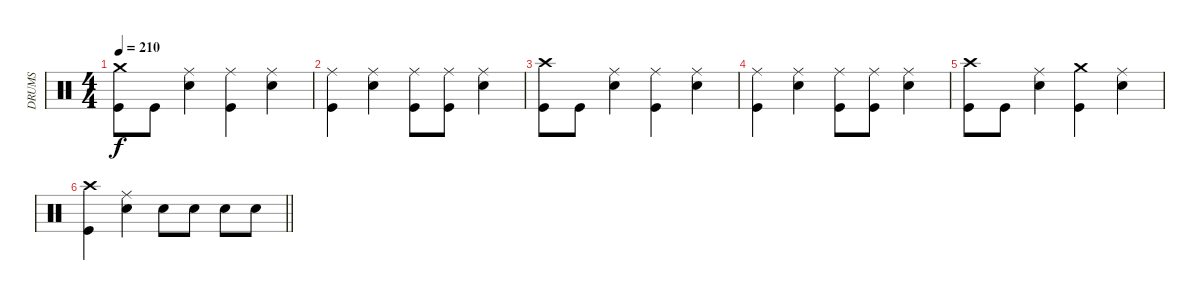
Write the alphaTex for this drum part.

\track ("DRUMS" "DRUMS") {instrument percussion}
\staff {score}
\articulation defaults
\ts (4 4)
\tempo 210
\clef neutral
\ks c
("Crash medium (hit)" "Kick (hit)").8{dy f} "Kick (hit)".8 ("Ride (middle)" "Snare (hit) 2").4 ("Ride (middle)" "Kick (hit)").4 ("Ride (middle)" "Snare (hit) 2").4 |
("Ride (middle)" "Kick (hit)").4 ("Ride (middle)" "Snare (hit) 2").4 ("Ride (middle)" "Kick (hit)").8 ("Ride (middle)" "Kick (hit)").8 ("Ride (middle)" "Snare (hit) 2").4 |
("Crash high (hit)" "Kick (hit)").8 "Kick (hit)".8 ("Ride (middle)" "Snare (hit) 2").4 ("Ride (middle)" "Kick (hit)").4 ("Ride (middle)" "Snare (hit) 2").4 |
("Ride (middle)" "Kick (hit)").4 ("Ride (middle)" "Snare (hit) 2").4 ("Ride (middle)" "Kick (hit)").8 ("Ride (middle)" "Kick (hit)").8 ("Ride (middle)" "Snare (hit) 2").4 |
("Crash high (hit)" "Kick (hit)").8 "Kick (hit)".8 ("Ride (middle)" "Snare (hit) 2").4 ("Crash medium (hit)" "Kick (hit)").4 ("Ride (middle)" "Snare (hit) 2").4 |
\barLineRight lightlight
("Crash high (hit)" "Kick (hit)").4 ("Ride (middle)" "Snare (hit) 2").4 "Snare (hit) 2".8 "Snare (hit) 2".8 "Snare (hit) 2".8 "Snare (hit) 2".8
